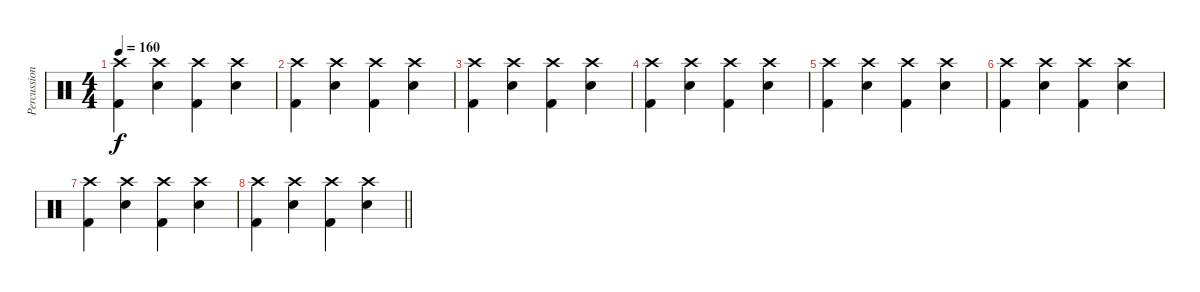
\track ("Percussion" "Percussion") {instrument percussion}
\staff {score}
\articulation defaults
\ts (4 4)
\tempo 160
\clef neutral
\ks c
("Crash high (hit)" "Kick (hit) 2").4{dy f} ("Crash high (hit)" "Snare (hit) 2").4 ("Crash high (hit)" "Kick (hit) 2").4 ("Crash high (hit)" "Snare (hit) 2").4 |
("Crash high (hit)" "Kick (hit) 2").4 ("Crash high (hit)" "Snare (hit) 2").4 ("Crash high (hit)" "Kick (hit) 2").4 ("Crash high (hit)" "Snare (hit) 2").4 |
("Crash high (hit)" "Kick (hit) 2").4 ("Crash high (hit)" "Snare (hit) 2").4 ("Crash high (hit)" "Kick (hit) 2").4 ("Crash high (hit)" "Snare (hit) 2").4 |
("Crash high (hit)" "Kick (hit) 2").4 ("Crash high (hit)" "Snare (hit) 2").4 ("Crash high (hit)" "Kick (hit) 2").4 ("Crash high (hit)" "Snare (hit) 2").4 |
("Crash high (hit)" "Kick (hit) 2").4 ("Crash high (hit)" "Snare (hit) 2").4 ("Crash high (hit)" "Kick (hit) 2").4 ("Crash high (hit)" "Snare (hit) 2").4 |
("Crash high (hit)" "Kick (hit) 2").4 ("Crash high (hit)" "Snare (hit) 2").4 ("Crash high (hit)" "Kick (hit) 2").4 ("Crash high (hit)" "Snare (hit) 2").4 |
("Crash high (hit)" "Kick (hit) 2").4 ("Crash high (hit)" "Snare (hit) 2").4 ("Crash high (hit)" "Kick (hit) 2").4 ("Crash high (hit)" "Snare (hit) 2").4 |
\barLineRight lightlight
("Crash high (hit)" "Kick (hit) 2").4 ("Crash high (hit)" "Snare (hit) 2").4 ("Crash high (hit)" "Kick (hit) 2").4 ("Crash high (hit)" "Snare (hit) 2").4
